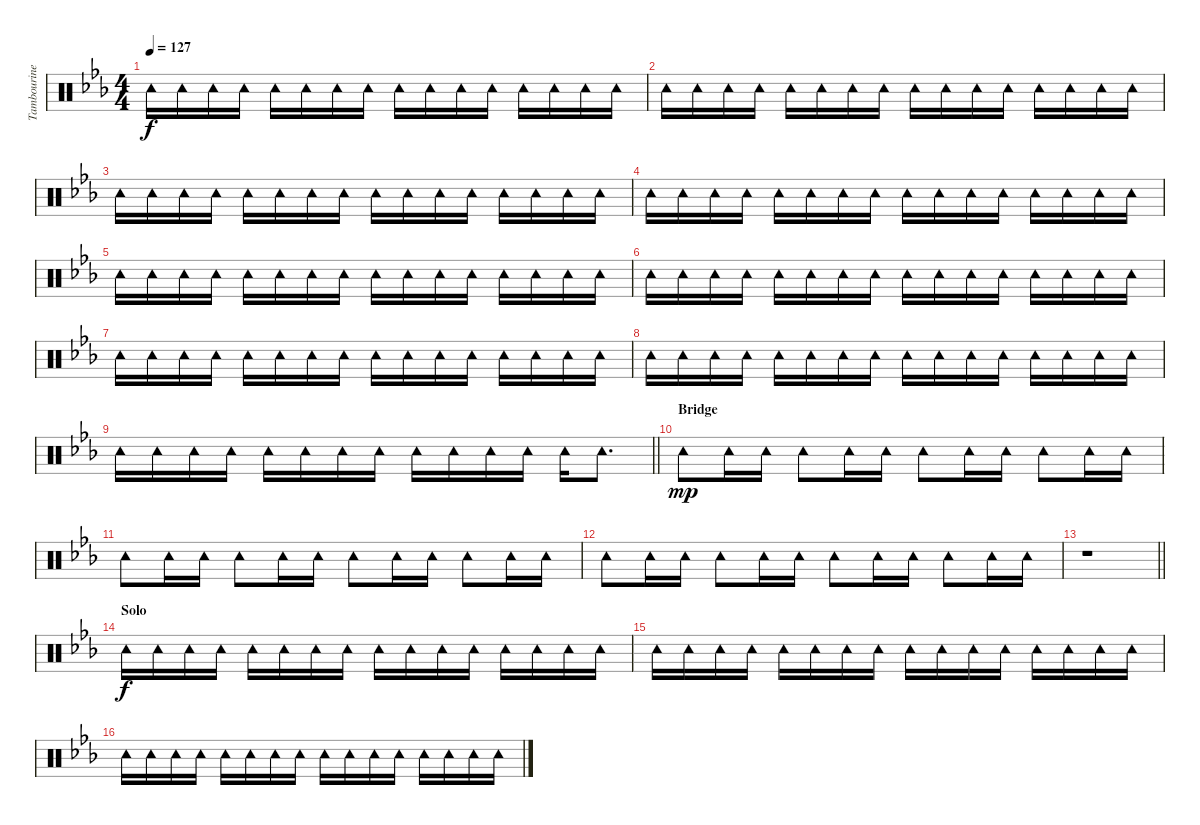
\track ("Tambourine" "Tambourine") {instrument percussion}
\staff {score}
\articulation defaults
\ts (4 4)
\tempo 127
\clef neutral
\ks eb "Tambourine (hit)".16{dy f} "Tambourine (hit)".16 "Tambourine (hit)".16 "Tambourine (hit)".16 "Tambourine (hit)".16 "Tambourine (hit)".16 "Tambourine (hit)".16 "Tambourine (hit)".16 "Tambourine (hit)".16 "Tambourine (hit)".16 "Tambourine (hit)".16 "Tambourine (hit)".16 "Tambourine (hit)".16 "Tambourine (hit)".16 "Tambourine (hit)".16 "Tambourine (hit)".16
|
"Tambourine (hit)".16 "Tambourine (hit)".16 "Tambourine (hit)".16 "Tambourine (hit)".16 "Tambourine (hit)".16 "Tambourine (hit)".16 "Tambourine (hit)".16 "Tambourine (hit)".16 "Tambourine (hit)".16 "Tambourine (hit)".16 "Tambourine (hit)".16 "Tambourine (hit)".16 "Tambourine (hit)".16 "Tambourine (hit)".16 "Tambourine (hit)".16 "Tambourine (hit)".16 |
"Tambourine (hit)".16 "Tambourine (hit)".16 "Tambourine (hit)".16 "Tambourine (hit)".16 "Tambourine (hit)".16 "Tambourine (hit)".16 "Tambourine (hit)".16 "Tambourine (hit)".16 "Tambourine (hit)".16 "Tambourine (hit)".16 "Tambourine (hit)".16 "Tambourine (hit)".16 "Tambourine (hit)".16 "Tambourine (hit)".16 "Tambourine (hit)".16 "Tambourine (hit)".16 |
"Tambourine (hit)".16 "Tambourine (hit)".16 "Tambourine (hit)".16 "Tambourine (hit)".16 "Tambourine (hit)".16 "Tambourine (hit)".16 "Tambourine (hit)".16 "Tambourine (hit)".16 "Tambourine (hit)".16 "Tambourine (hit)".16 "Tambourine (hit)".16 "Tambourine (hit)".16 "Tambourine (hit)".16 "Tambourine (hit)".16 "Tambourine (hit)".16 "Tambourine (hit)".16 |
"Tambourine (hit)".16 "Tambourine (hit)".16 "Tambourine (hit)".16 "Tambourine (hit)".16 "Tambourine (hit)".16 "Tambourine (hit)".16 "Tambourine (hit)".16 "Tambourine (hit)".16 "Tambourine (hit)".16 "Tambourine (hit)".16 "Tambourine (hit)".16 "Tambourine (hit)".16 "Tambourine (hit)".16 "Tambourine (hit)".16 "Tambourine (hit)".16 "Tambourine (hit)".16 |
"Tambourine (hit)".16 "Tambourine (hit)".16 "Tambourine (hit)".16 "Tambourine (hit)".16 "Tambourine (hit)".16 "Tambourine (hit)".16 "Tambourine (hit)".16 "Tambourine (hit)".16 "Tambourine (hit)".16 "Tambourine (hit)".16 "Tambourine (hit)".16 "Tambourine (hit)".16 "Tambourine (hit)".16 "Tambourine (hit)".16 "Tambourine (hit)".16 "Tambourine (hit)".16 |
"Tambourine (hit)".16 "Tambourine (hit)".16 "Tambourine (hit)".16 "Tambourine (hit)".16 "Tambourine (hit)".16 "Tambourine (hit)".16 "Tambourine (hit)".16 "Tambourine (hit)".16 "Tambourine (hit)".16 "Tambourine (hit)".16 "Tambourine (hit)".16 "Tambourine (hit)".16 "Tambourine (hit)".16 "Tambourine (hit)".16 "Tambourine (hit)".16 "Tambourine (hit)".16 |
"Tambourine (hit)".16 "Tambourine (hit)".16 "Tambourine (hit)".16 "Tambourine (hit)".16 "Tambourine (hit)".16 "Tambourine (hit)".16 "Tambourine (hit)".16 "Tambourine (hit)".16 "Tambourine (hit)".16 "Tambourine (hit)".16 "Tambourine (hit)".16 "Tambourine (hit)".16 "Tambourine (hit)".16 "Tambourine (hit)".16 "Tambourine (hit)".16 "Tambourine (hit)".16 |
\barLineRight lightlight "Tambourine (hit)".16 "Tambourine (hit)".16 "Tambourine (hit)".16 "Tambourine (hit)".16 "Tambourine (hit)".16 "Tambourine (hit)".16 "Tambourine (hit)".16 "Tambourine (hit)".16 "Tambourine (hit)".16 "Tambourine (hit)".16 "Tambourine (hit)".16 "Tambourine (hit)".16 "Tambourine (hit)".16 "Tambourine (hit)".8{d}
|
\section ("" "Bridge")
"Tambourine (hit)".8{dy mp} "Tambourine (hit)".16 "Tambourine (hit)".16 "Tambourine (hit)".8 "Tambourine (hit)".16 "Tambourine (hit)".16 "Tambourine (hit)".8 "Tambourine (hit)".16 "Tambourine (hit)".16 "Tambourine (hit)".8 "Tambourine (hit)".16 "Tambourine (hit)".16 |
"Tambourine (hit)".8 "Tambourine (hit)".16 "Tambourine (hit)".16 "Tambourine (hit)".8 "Tambourine (hit)".16 "Tambourine (hit)".16 "Tambourine (hit)".8 "Tambourine (hit)".16 "Tambourine (hit)".16 "Tambourine (hit)".8 "Tambourine (hit)".16 "Tambourine (hit)".16 |
"Tambourine (hit)".8 "Tambourine (hit)".16 "Tambourine (hit)".16 "Tambourine (hit)".8 "Tambourine (hit)".16 "Tambourine (hit)".16 "Tambourine (hit)".8 "Tambourine (hit)".16 "Tambourine (hit)".16 "Tambourine (hit)".8 "Tambourine (hit)".16 "Tambourine (hit)".16 |
\barLineRight lightlight
r.1 |
\section ("" "Solo")
"Tambourine (hit)".16{dy f} "Tambourine (hit)".16 "Tambourine (hit)".16 "Tambourine (hit)".16 "Tambourine (hit)".16 "Tambourine (hit)".16 "Tambourine (hit)".16 "Tambourine (hit)".16 "Tambourine (hit)".16 "Tambourine (hit)".16 "Tambourine (hit)".16 "Tambourine (hit)".16 "Tambourine (hit)".16 "Tambourine (hit)".16 "Tambourine (hit)".16 "Tambourine (hit)".16 |
"Tambourine (hit)".16 "Tambourine (hit)".16 "Tambourine (hit)".16 "Tambourine (hit)".16 "Tambourine (hit)".16 "Tambourine (hit)".16 "Tambourine (hit)".16 "Tambourine (hit)".16 "Tambourine (hit)".16 "Tambourine (hit)".16 "Tambourine (hit)".16 "Tambourine (hit)".16 "Tambourine (hit)".16 "Tambourine (hit)".16 "Tambourine (hit)".16 "Tambourine (hit)".16 |
"Tambourine (hit)".16 "Tambourine (hit)".16 "Tambourine (hit)".16 "Tambourine (hit)".16 "Tambourine (hit)".16 "Tambourine (hit)".16 "Tambourine (hit)".16 "Tambourine (hit)".16 "Tambourine (hit)".16 "Tambourine (hit)".16 "Tambourine (hit)".16 "Tambourine (hit)".16 "Tambourine (hit)".16 "Tambourine (hit)".16 "Tambourine (hit)".16 "Tambourine (hit)".16
